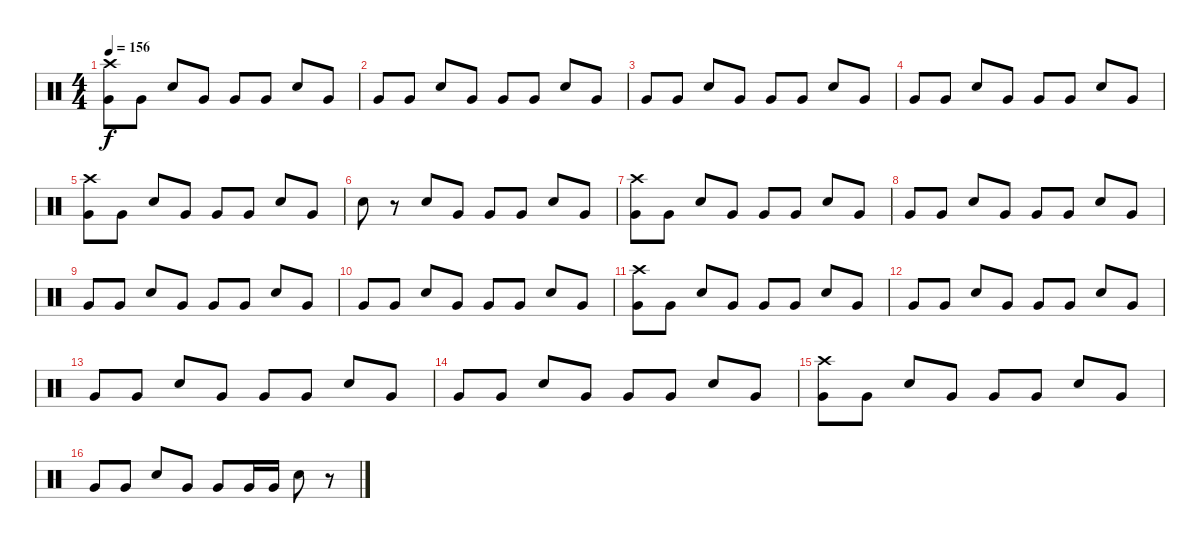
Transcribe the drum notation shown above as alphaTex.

\track "" {instrument percussion}
\staff {score}
\articulation defaults
\ts (4 4)
\tempo 156
\clef neutral
\ks c
("Very Low Tom (hit)" "Crash high (hit)").8{dy f volume 14} "Very Low Tom (hit)".8 "Electric Snare (hit)".8 "Very Low Tom (hit)".8 "Very Low Tom (hit)".8 "Very Low Tom (hit)".8 "Electric Snare (hit)".8 "Very Low Tom (hit)".8 |
"Very Low Tom (hit)".8 "Very Low Tom (hit)".8 "Electric Snare (hit)".8 "Very Low Tom (hit)".8 "Very Low Tom (hit)".8 "Very Low Tom (hit)".8 "Electric Snare (hit)".8 "Very Low Tom (hit)".8 |
"Very Low Tom (hit)".8 "Very Low Tom (hit)".8 "Electric Snare (hit)".8 "Very Low Tom (hit)".8 "Very Low Tom (hit)".8 "Very Low Tom (hit)".8 "Electric Snare (hit)".8 "Very Low Tom (hit)".8 |
"Very Low Tom (hit)".8 "Very Low Tom (hit)".8 "Electric Snare (hit)".8 "Very Low Tom (hit)".8 "Very Low Tom (hit)".8 "Very Low Tom (hit)".8 "Electric Snare (hit)".8 "Very Low Tom (hit)".8 |
("Very Low Tom (hit)" "Crash high (hit)").8{volume 14} "Very Low Tom (hit)".8 "Electric Snare (hit)".8 "Very Low Tom (hit)".8 "Very Low Tom (hit)".8 "Very Low Tom (hit)".8 "Electric Snare (hit)".8 "Very Low Tom (hit)".8 |
"Electric Snare (hit)".8 r.8 "Electric Snare (hit)".8 "Very Low Tom (hit)".8 "Very Low Tom (hit)".8 "Very Low Tom (hit)".8 "Electric Snare (hit)".8 "Very Low Tom (hit)".8 |
("Very Low Tom (hit)" "Crash high (hit)").8{volume 12} "Very Low Tom (hit)".8 "Electric Snare (hit)".8 "Very Low Tom (hit)".8 "Very Low Tom (hit)".8 "Very Low Tom (hit)".8 "Electric Snare (hit)".8 "Very Low Tom (hit)".8 |
"Very Low Tom (hit)".8 "Very Low Tom (hit)".8 "Electric Snare (hit)".8 "Very Low Tom (hit)".8 "Very Low Tom (hit)".8 "Very Low Tom (hit)".8 "Electric Snare (hit)".8 "Very Low Tom (hit)".8 |
"Very Low Tom (hit)".8 "Very Low Tom (hit)".8 "Electric Snare (hit)".8 "Very Low Tom (hit)".8 "Very Low Tom (hit)".8 "Very Low Tom (hit)".8 "Electric Snare (hit)".8 "Very Low Tom (hit)".8 |
"Very Low Tom (hit)".8 "Very Low Tom (hit)".8 "Electric Snare (hit)".8 "Very Low Tom (hit)".8 "Very Low Tom (hit)".8 "Very Low Tom (hit)".8 "Electric Snare (hit)".8 "Very Low Tom (hit)".8 |
("Very Low Tom (hit)" "Crash high (hit)").8 "Very Low Tom (hit)".8 "Electric Snare (hit)".8 "Very Low Tom (hit)".8 "Very Low Tom (hit)".8 "Very Low Tom (hit)".8 "Electric Snare (hit)".8 "Very Low Tom (hit)".8 |
"Very Low Tom (hit)".8 "Very Low Tom (hit)".8 "Electric Snare (hit)".8 "Very Low Tom (hit)".8 "Very Low Tom (hit)".8 "Very Low Tom (hit)".8 "Electric Snare (hit)".8 "Very Low Tom (hit)".8 |
"Very Low Tom (hit)".8 "Very Low Tom (hit)".8 "Electric Snare (hit)".8 "Very Low Tom (hit)".8 "Very Low Tom (hit)".8 "Very Low Tom (hit)".8 "Electric Snare (hit)".8 "Very Low Tom (hit)".8 |
"Very Low Tom (hit)".8 "Very Low Tom (hit)".8 "Electric Snare (hit)".8 "Very Low Tom (hit)".8 "Very Low Tom (hit)".8 "Very Low Tom (hit)".8 "Electric Snare (hit)".8 "Very Low Tom (hit)".8 |
("Very Low Tom (hit)" "Crash high (hit)").8 "Very Low Tom (hit)".8 "Electric Snare (hit)".8 "Very Low Tom (hit)".8 "Very Low Tom (hit)".8 "Very Low Tom (hit)".8 "Electric Snare (hit)".8 "Very Low Tom (hit)".8 |
"Very Low Tom (hit)".8 "Very Low Tom (hit)".8 "Electric Snare (hit)".8 "Very Low Tom (hit)".8 "Very Low Tom (hit)".8 "Very Low Tom (hit)".16 "Very Low Tom (hit)".16 "Electric Snare (hit)".8 r.8
